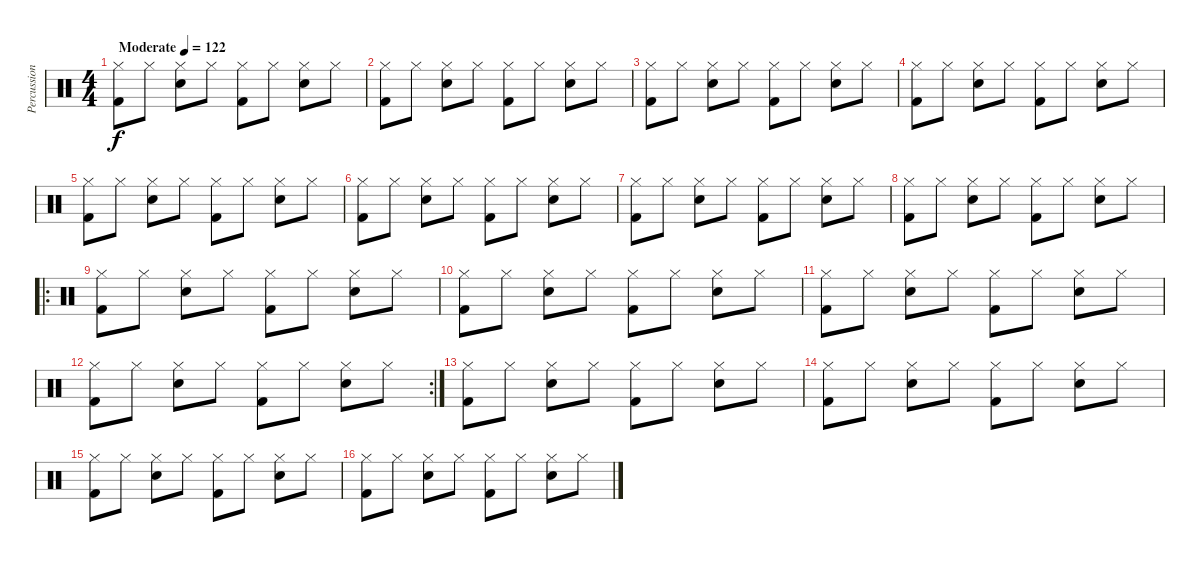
\track ("Percussion" "Percussion") {instrument percussion}
\staff {score}
\articulation defaults
\ts (4 4)
\tempo (122 "Moderate")
\clef neutral
\ks c
("Hi-Hat (closed)" "Kick (hit) 2").8{dy f} "Hi-Hat (closed)".8 ("Hi-Hat (closed)" "Electric Snare (hit)").8 "Hi-Hat (closed)".8 ("Hi-Hat (closed)" "Kick (hit) 2").8 "Hi-Hat (closed)".8 ("Hi-Hat (closed)" "Electric Snare (hit)").8 "Hi-Hat (closed)".8 |
("Hi-Hat (closed)" "Kick (hit) 2").8 "Hi-Hat (closed)".8 ("Hi-Hat (closed)" "Electric Snare (hit)").8 "Hi-Hat (closed)".8 ("Hi-Hat (closed)" "Kick (hit) 2").8 "Hi-Hat (closed)".8 ("Hi-Hat (closed)" "Electric Snare (hit)").8 "Hi-Hat (closed)".8 |
("Hi-Hat (closed)" "Kick (hit) 2").8 "Hi-Hat (closed)".8 ("Hi-Hat (closed)" "Electric Snare (hit)").8 "Hi-Hat (closed)".8 ("Hi-Hat (closed)" "Kick (hit) 2").8 "Hi-Hat (closed)".8 ("Hi-Hat (closed)" "Electric Snare (hit)").8 "Hi-Hat (closed)".8 |
("Hi-Hat (closed)" "Kick (hit) 2").8 "Hi-Hat (closed)".8 ("Hi-Hat (closed)" "Electric Snare (hit)").8 "Hi-Hat (closed)".8 ("Hi-Hat (closed)" "Kick (hit) 2").8 "Hi-Hat (closed)".8 ("Hi-Hat (closed)" "Electric Snare (hit)").8 "Hi-Hat (closed)".8 |
("Hi-Hat (closed)" "Kick (hit) 2").8 "Hi-Hat (closed)".8 ("Hi-Hat (closed)" "Electric Snare (hit)").8 "Hi-Hat (closed)".8 ("Hi-Hat (closed)" "Kick (hit) 2").8 "Hi-Hat (closed)".8 ("Hi-Hat (closed)" "Electric Snare (hit)").8 "Hi-Hat (closed)".8 |
("Hi-Hat (closed)" "Kick (hit) 2").8 "Hi-Hat (closed)".8 ("Hi-Hat (closed)" "Electric Snare (hit)").8 "Hi-Hat (closed)".8 ("Hi-Hat (closed)" "Kick (hit) 2").8 "Hi-Hat (closed)".8 ("Hi-Hat (closed)" "Electric Snare (hit)").8 "Hi-Hat (closed)".8 |
("Hi-Hat (closed)" "Kick (hit) 2").8 "Hi-Hat (closed)".8 ("Hi-Hat (closed)" "Electric Snare (hit)").8 "Hi-Hat (closed)".8 ("Hi-Hat (closed)" "Kick (hit) 2").8 "Hi-Hat (closed)".8 ("Hi-Hat (closed)" "Electric Snare (hit)").8 "Hi-Hat (closed)".8 |
("Hi-Hat (closed)" "Kick (hit) 2").8 "Hi-Hat (closed)".8 ("Hi-Hat (closed)" "Electric Snare (hit)").8 "Hi-Hat (closed)".8 ("Hi-Hat (closed)" "Kick (hit) 2").8 "Hi-Hat (closed)".8 ("Hi-Hat (closed)" "Electric Snare (hit)").8 "Hi-Hat (closed)".8 |
\ro
("Hi-Hat (closed)" "Kick (hit) 2").8 "Hi-Hat (closed)".8 ("Hi-Hat (closed)" "Electric Snare (hit)").8 "Hi-Hat (closed)".8 ("Hi-Hat (closed)" "Kick (hit) 2").8 "Hi-Hat (closed)".8 ("Hi-Hat (closed)" "Electric Snare (hit)").8 "Hi-Hat (closed)".8 |
("Hi-Hat (closed)" "Kick (hit) 2").8 "Hi-Hat (closed)".8 ("Hi-Hat (closed)" "Electric Snare (hit)").8 "Hi-Hat (closed)".8 ("Hi-Hat (closed)" "Kick (hit) 2").8 "Hi-Hat (closed)".8 ("Hi-Hat (closed)" "Electric Snare (hit)").8 "Hi-Hat (closed)".8 |
("Hi-Hat (closed)" "Kick (hit) 2").8 "Hi-Hat (closed)".8 ("Hi-Hat (closed)" "Electric Snare (hit)").8 "Hi-Hat (closed)".8 ("Hi-Hat (closed)" "Kick (hit) 2").8 "Hi-Hat (closed)".8 ("Hi-Hat (closed)" "Electric Snare (hit)").8 "Hi-Hat (closed)".8 |
\rc 2
("Hi-Hat (closed)" "Kick (hit) 2").8 "Hi-Hat (closed)".8 ("Hi-Hat (closed)" "Electric Snare (hit)").8 "Hi-Hat (closed)".8 ("Hi-Hat (closed)" "Kick (hit) 2").8 "Hi-Hat (closed)".8 ("Hi-Hat (closed)" "Electric Snare (hit)").8 "Hi-Hat (closed)".8 |
("Hi-Hat (closed)" "Kick (hit) 2").8 "Hi-Hat (closed)".8 ("Hi-Hat (closed)" "Electric Snare (hit)").8 "Hi-Hat (closed)".8 ("Hi-Hat (closed)" "Kick (hit) 2").8 "Hi-Hat (closed)".8 ("Hi-Hat (closed)" "Electric Snare (hit)").8 "Hi-Hat (closed)".8 |
("Hi-Hat (closed)" "Kick (hit) 2").8 "Hi-Hat (closed)".8 ("Hi-Hat (closed)" "Electric Snare (hit)").8 "Hi-Hat (closed)".8 ("Hi-Hat (closed)" "Kick (hit) 2").8 "Hi-Hat (closed)".8 ("Hi-Hat (closed)" "Electric Snare (hit)").8 "Hi-Hat (closed)".8 |
("Hi-Hat (closed)" "Kick (hit) 2").8 "Hi-Hat (closed)".8 ("Hi-Hat (closed)" "Electric Snare (hit)").8 "Hi-Hat (closed)".8 ("Hi-Hat (closed)" "Kick (hit) 2").8 "Hi-Hat (closed)".8 ("Hi-Hat (closed)" "Electric Snare (hit)").8 "Hi-Hat (closed)".8 |
("Hi-Hat (closed)" "Kick (hit) 2").8 "Hi-Hat (closed)".8 ("Hi-Hat (closed)" "Electric Snare (hit)").8 "Hi-Hat (closed)".8 ("Hi-Hat (closed)" "Kick (hit) 2").8 "Hi-Hat (closed)".8 ("Hi-Hat (closed)" "Electric Snare (hit)").8 "Hi-Hat (closed)".8
